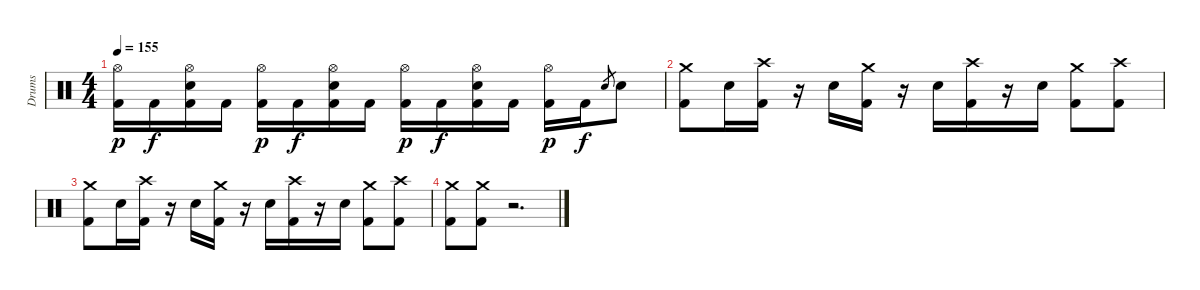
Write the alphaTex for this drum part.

\track ("Drums" "Drums") {instrument percussion}
\staff {score}
\articulation defaults
\ts (4 4)
\tempo 155
\clef neutral
\ks c
("Hi-Hat (open)" "Kick (hit) 2").16{dy p} "Kick (hit) 2".16{dy f} ("Hi-Hat (open)" "Snare (hit) 2" "Kick (hit) 2").16 "Kick (hit) 2".16 ("Hi-Hat (open)" "Kick (hit) 2").16{dy p} "Kick (hit) 2".16{dy f} ("Hi-Hat (open)" "Snare (hit) 2" "Kick (hit) 2").16 "Kick (hit) 2".16 ("Hi-Hat (open)" "Kick (hit) 2").16{dy p} "Kick (hit) 2".16{dy f} ("Hi-Hat (open)" "Snare (hit) 2" "Kick (hit) 2").16 "Kick (hit) 2".16 ("Hi-Hat (open)" "Kick (hit) 2").16{dy p} "Kick (hit) 2".16{dy f} "Snare (hit) 2".8{gr} "Snare (hit) 2".8 |
("Crash medium (hit)" "Kick (hit) 2").8 "Snare (hit) 2".16 ("Crash high (hit)" "Kick (hit) 2").16 r.16 "Snare (hit) 2".16 ("Crash medium (hit)" "Kick (hit) 2").16 r.16 "Snare (hit) 2".16 ("Crash high (hit)" "Kick (hit) 2").16 r.16 "Snare (hit) 2".16 ("Crash medium (hit)" "Kick (hit) 2").8 ("Crash high (hit)" "Kick (hit) 2").8 |
("Crash medium (hit)" "Kick (hit) 2").8 "Snare (hit) 2".16 ("Crash high (hit)" "Kick (hit) 2").16 r.16 "Snare (hit) 2".16 ("Crash medium (hit)" "Kick (hit) 2").16 r.16 "Snare (hit) 2".16 ("Crash high (hit)" "Kick (hit) 2").16 r.16 "Snare (hit) 2".16 ("Crash medium (hit)" "Kick (hit) 2").8 ("Crash high (hit)" "Kick (hit) 2").8 |
("Crash medium (hit)" "Kick (hit) 2").8 ("Crash medium (hit)" "Kick (hit) 2").8 r.2{d}
